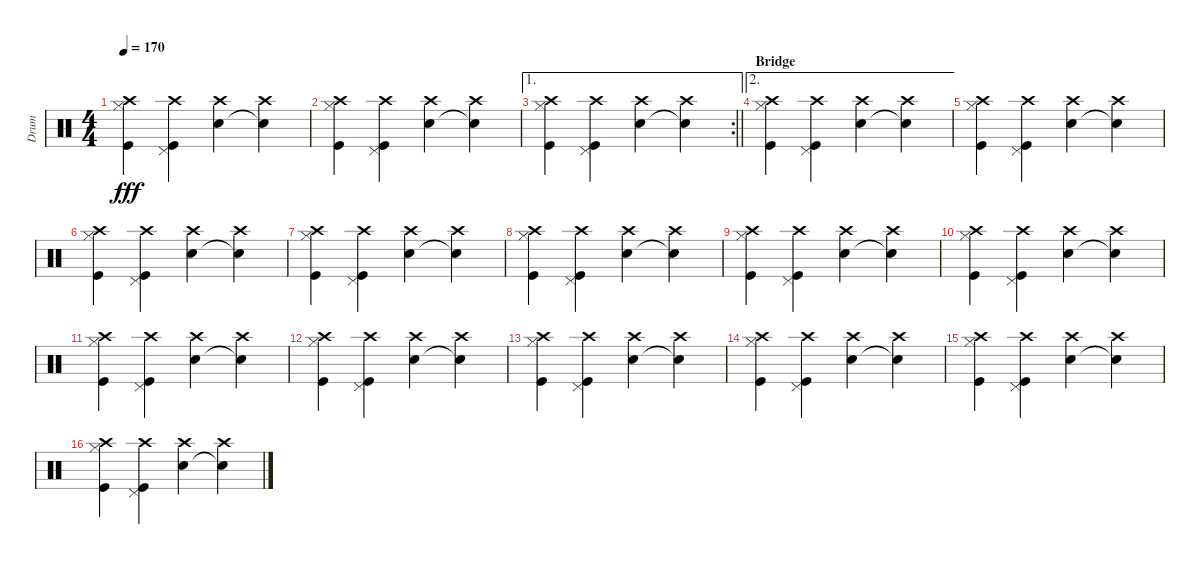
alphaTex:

\track ("Drum" "Drum") {instrument percussion}
\staff {score}
\articulation defaults
\ts (4 4)
\tempo 170
\clef neutral
\ks c
("Crash high (hit)" "Hi-Hat (closed)" "Kick (hit)").4{dy fff} ("Crash high (hit)" "Pedal Hi-Hat (hit)" "Kick (hit)").4 ("Crash high (hit)" "Snare (hit) 2").4 ("Crash high (hit)" "Snare (hit)"{t}).4 |
("Crash high (hit)" "Hi-Hat (closed)" "Kick (hit)").4 ("Crash high (hit)" "Pedal Hi-Hat (hit)" "Kick (hit)").4 ("Crash high (hit)" "Snare (hit) 2").4 ("Crash high (hit)" "Snare (hit)"{t}).4 |
\ae 1
\rc 2
\barLineRight lightlight
("Crash high (hit)" "Hi-Hat (closed)" "Kick (hit)").4 ("Crash high (hit)" "Pedal Hi-Hat (hit)" "Kick (hit)").4 ("Crash high (hit)" "Snare (hit) 2").4 ("Crash high (hit)" "Snare (hit)"{t}).4 |
\ae 2
\section ("" "Bridge")
("Crash high (hit)" "Hi-Hat (closed)" "Kick (hit)").4 ("Crash high (hit)" "Pedal Hi-Hat (hit)" "Kick (hit)").4 ("Crash high (hit)" "Snare (hit) 2").4 ("Crash high (hit)" "Snare (hit)"{t}).4 |
("Crash high (hit)" "Hi-Hat (closed)" "Kick (hit)").4 ("Crash high (hit)" "Pedal Hi-Hat (hit)" "Kick (hit)").4 ("Crash high (hit)" "Snare (hit) 2").4 ("Crash high (hit)" "Snare (hit)"{t}).4 |
("Crash high (hit)" "Hi-Hat (closed)" "Kick (hit)").4 ("Crash high (hit)" "Pedal Hi-Hat (hit)" "Kick (hit)").4 ("Crash high (hit)" "Snare (hit) 2").4 ("Crash high (hit)" "Snare (hit)"{t}).4 |
("Crash high (hit)" "Hi-Hat (closed)" "Kick (hit)").4 ("Crash high (hit)" "Pedal Hi-Hat (hit)" "Kick (hit)").4 ("Crash high (hit)" "Snare (hit) 2").4 ("Crash high (hit)" "Snare (hit)"{t}).4 |
("Crash high (hit)" "Hi-Hat (closed)" "Kick (hit)").4 ("Crash high (hit)" "Pedal Hi-Hat (hit)" "Kick (hit)").4 ("Crash high (hit)" "Snare (hit) 2").4 ("Crash high (hit)" "Snare (hit)"{t}).4 |
("Crash high (hit)" "Hi-Hat (closed)" "Kick (hit)").4 ("Crash high (hit)" "Pedal Hi-Hat (hit)" "Kick (hit)").4 ("Crash high (hit)" "Snare (hit) 2").4 ("Crash high (hit)" "Snare (hit)"{t}).4 |
("Crash high (hit)" "Hi-Hat (closed)" "Kick (hit)").4 ("Crash high (hit)" "Pedal Hi-Hat (hit)" "Kick (hit)").4 ("Crash high (hit)" "Snare (hit) 2").4 ("Crash high (hit)" "Snare (hit)"{t}).4 |
("Crash high (hit)" "Hi-Hat (closed)" "Kick (hit)").4 ("Crash high (hit)" "Pedal Hi-Hat (hit)" "Kick (hit)").4 ("Crash high (hit)" "Snare (hit) 2").4 ("Crash high (hit)" "Snare (hit)"{t}).4 |
("Crash high (hit)" "Hi-Hat (closed)" "Kick (hit)").4 ("Crash high (hit)" "Pedal Hi-Hat (hit)" "Kick (hit)").4 ("Crash high (hit)" "Snare (hit) 2").4 ("Crash high (hit)" "Snare (hit)"{t}).4 |
("Crash high (hit)" "Hi-Hat (closed)" "Kick (hit)").4 ("Crash high (hit)" "Pedal Hi-Hat (hit)" "Kick (hit)").4 ("Crash high (hit)" "Snare (hit) 2").4 ("Crash high (hit)" "Snare (hit)"{t}).4 |
("Crash high (hit)" "Hi-Hat (closed)" "Kick (hit)").4 ("Crash high (hit)" "Pedal Hi-Hat (hit)" "Kick (hit)").4 ("Crash high (hit)" "Snare (hit) 2").4 ("Crash high (hit)" "Snare (hit)"{t}).4 |
("Crash high (hit)" "Hi-Hat (closed)" "Kick (hit)").4 ("Crash high (hit)" "Pedal Hi-Hat (hit)" "Kick (hit)").4 ("Crash high (hit)" "Snare (hit) 2").4 ("Crash high (hit)" "Snare (hit)"{t}).4 |
("Crash high (hit)" "Hi-Hat (closed)" "Kick (hit)").4 ("Crash high (hit)" "Pedal Hi-Hat (hit)" "Kick (hit)").4 ("Crash high (hit)" "Snare (hit) 2").4 ("Crash high (hit)" "Snare (hit)"{t}).4
